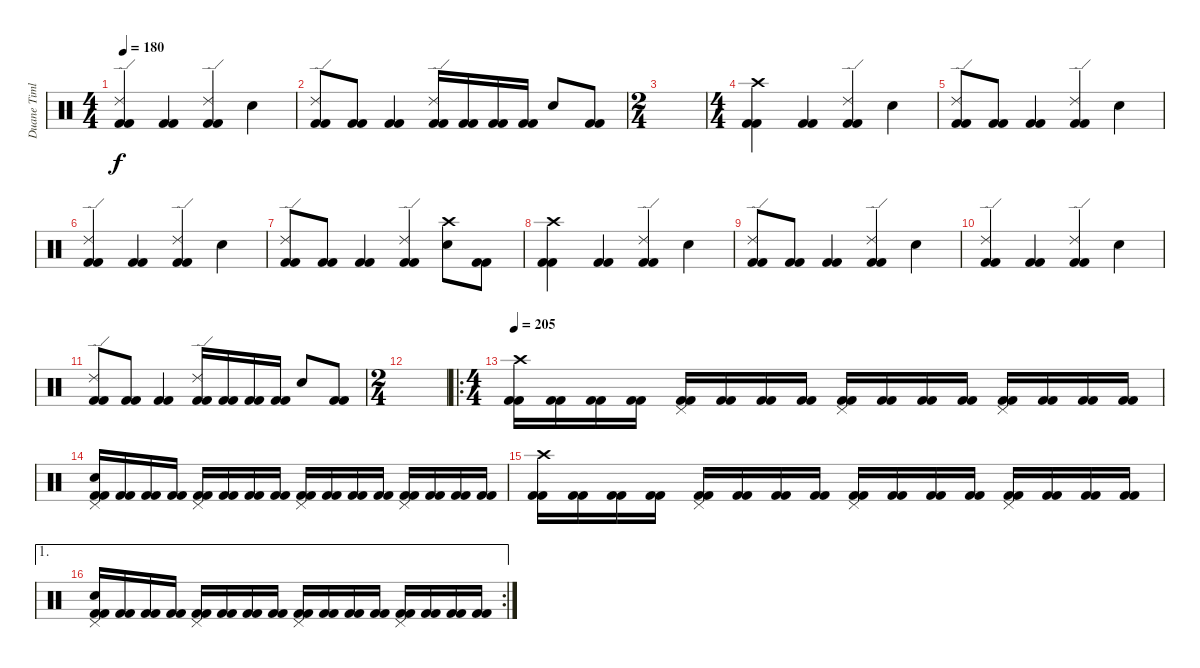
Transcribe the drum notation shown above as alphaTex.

\track ("Duane Timlin" "Duane Timl") {instrument percussion}
\staff {score}
\articulation defaults
\ts (4 4)
\tempo 180
\clef neutral
\ks c
("Ride (edge) 2" "Kick (hit) 2" "Kick (hit) 2").4{dy f} ("Kick (hit) 2" "Kick (hit) 2").4 ("Ride (edge) 2" "Kick (hit) 2" "Kick (hit) 2").4 "Electric Snare (hit)".4 |
("Ride (edge) 2" "Kick (hit) 2" "Kick (hit) 2").8 ("Kick (hit) 2" "Kick (hit) 2").8 ("Kick (hit) 2" "Kick (hit) 2").4 ("Ride (edge) 2" "Kick (hit) 2" "Kick (hit) 2").16 ("Kick (hit) 2" "Kick (hit) 2").16 ("Kick (hit) 2" "Kick (hit) 2").16 ("Kick (hit) 2" "Kick (hit) 2").16 "Electric Snare (hit)".8 ("Kick (hit) 2" "Kick (hit) 2").8 |
\ts (2 4)
|
\ts (4 4)
("Crash high (hit)" "Kick (hit) 2" "Kick (hit) 2").4 ("Kick (hit) 2" "Kick (hit) 2").4 ("Ride (edge) 2" "Kick (hit) 2" "Kick (hit) 2").4 "Electric Snare (hit)".4 |
("Ride (edge) 2" "Kick (hit) 2" "Kick (hit) 2").8 ("Kick (hit) 2" "Kick (hit) 2").8 ("Kick (hit) 2" "Kick (hit) 2").4 ("Ride (edge) 2" "Kick (hit) 2" "Kick (hit) 2").4 "Electric Snare (hit)".4 |
("Ride (edge) 2" "Kick (hit) 2" "Kick (hit) 2").4 ("Kick (hit) 2" "Kick (hit) 2").4 ("Ride (edge) 2" "Kick (hit) 2" "Kick (hit) 2").4 "Electric Snare (hit)".4 |
("Ride (edge) 2" "Kick (hit) 2" "Kick (hit) 2").8 ("Kick (hit) 2" "Kick (hit) 2").8 ("Kick (hit) 2" "Kick (hit) 2").4 ("Ride (edge) 2" "Kick (hit) 2" "Kick (hit) 2").4 ("Crash high (hit)" "Electric Snare (hit)").8 ("Kick (hit) 2" "Kick (hit) 2").8 |
("Crash high (hit)" "Kick (hit) 2" "Kick (hit) 2").4 ("Kick (hit) 2" "Kick (hit) 2").4 ("Ride (edge) 2" "Kick (hit) 2" "Kick (hit) 2").4 "Electric Snare (hit)".4 |
("Ride (edge) 2" "Kick (hit) 2" "Kick (hit) 2").8 ("Kick (hit) 2" "Kick (hit) 2").8 ("Kick (hit) 2" "Kick (hit) 2").4 ("Ride (edge) 2" "Kick (hit) 2" "Kick (hit) 2").4 "Electric Snare (hit)".4 |
("Ride (edge) 2" "Kick (hit) 2" "Kick (hit) 2").4 ("Kick (hit) 2" "Kick (hit) 2").4 ("Ride (edge) 2" "Kick (hit) 2" "Kick (hit) 2").4 "Electric Snare (hit)".4 |
("Ride (edge) 2" "Kick (hit) 2" "Kick (hit) 2").8 ("Kick (hit) 2" "Kick (hit) 2").8 ("Kick (hit) 2" "Kick (hit) 2").4 ("Ride (edge) 2" "Kick (hit) 2" "Kick (hit) 2").16 ("Kick (hit) 2" "Kick (hit) 2").16 ("Kick (hit) 2" "Kick (hit) 2").16 ("Kick (hit) 2" "Kick (hit) 2").16 "Electric Snare (hit)".8 ("Kick (hit) 2" "Kick (hit) 2").8 |
\ts (2 4)
|
\ro
\ts (4 4)
\tempo 205
("Crash high (hit)" "Kick (hit) 2" "Kick (hit) 2").16 ("Kick (hit) 2" "Kick (hit) 2").16 ("Kick (hit) 2" "Kick (hit) 2").16 ("Kick (hit) 2" "Kick (hit) 2").16 ("Pedal Hi-Hat (hit)" "Kick (hit) 2" "Kick (hit) 2").16 ("Kick (hit) 2" "Kick (hit) 2").16 ("Kick (hit) 2" "Kick (hit) 2").16 ("Kick (hit) 2" "Kick (hit) 2").16 ("Pedal Hi-Hat (hit)" "Kick (hit) 2" "Kick (hit) 2").16 ("Kick (hit) 2" "Kick (hit) 2").16 ("Kick (hit) 2" "Kick (hit) 2").16 ("Kick (hit) 2" "Kick (hit) 2").16 ("Pedal Hi-Hat (hit)" "Kick (hit) 2" "Kick (hit) 2").16 ("Kick (hit) 2" "Kick (hit) 2").16 ("Kick (hit) 2" "Kick (hit) 2").16 ("Kick (hit) 2" "Kick (hit) 2").16 |
("Pedal Hi-Hat (hit)" "Electric Snare (hit)" "Kick (hit) 2" "Kick (hit) 2").16 ("Kick (hit) 2" "Kick (hit) 2").16 ("Kick (hit) 2" "Kick (hit) 2").16 ("Kick (hit) 2" "Kick (hit) 2").16 ("Pedal Hi-Hat (hit)" "Kick (hit) 2" "Kick (hit) 2").16 ("Kick (hit) 2" "Kick (hit) 2").16 ("Kick (hit) 2" "Kick (hit) 2").16 ("Kick (hit) 2" "Kick (hit) 2").16 ("Pedal Hi-Hat (hit)" "Kick (hit) 2" "Kick (hit) 2").16 ("Kick (hit) 2" "Kick (hit) 2").16 ("Kick (hit) 2" "Kick (hit) 2").16 ("Kick (hit) 2" "Kick (hit) 2").16 ("Pedal Hi-Hat (hit)" "Kick (hit) 2" "Kick (hit) 2").16 ("Kick (hit) 2" "Kick (hit) 2").16 ("Kick (hit) 2" "Kick (hit) 2").16 ("Kick (hit) 2" "Kick (hit) 2").16 |
("Crash high (hit)" "Kick (hit) 2" "Kick (hit) 2").16 ("Kick (hit) 2" "Kick (hit) 2").16 ("Kick (hit) 2" "Kick (hit) 2").16 ("Kick (hit) 2" "Kick (hit) 2").16 ("Pedal Hi-Hat (hit)" "Kick (hit) 2" "Kick (hit) 2").16 ("Kick (hit) 2" "Kick (hit) 2").16 ("Kick (hit) 2" "Kick (hit) 2").16 ("Kick (hit) 2" "Kick (hit) 2").16 ("Pedal Hi-Hat (hit)" "Kick (hit) 2" "Kick (hit) 2").16 ("Kick (hit) 2" "Kick (hit) 2").16 ("Kick (hit) 2" "Kick (hit) 2").16 ("Kick (hit) 2" "Kick (hit) 2").16 ("Pedal Hi-Hat (hit)" "Kick (hit) 2" "Kick (hit) 2").16 ("Kick (hit) 2" "Kick (hit) 2").16 ("Kick (hit) 2" "Kick (hit) 2").16 ("Kick (hit) 2" "Kick (hit) 2").16 |
\ae 1
\rc 2
("Pedal Hi-Hat (hit)" "Electric Snare (hit)" "Kick (hit) 2" "Kick (hit) 2").16 ("Kick (hit) 2" "Kick (hit) 2").16 ("Kick (hit) 2" "Kick (hit) 2").16 ("Kick (hit) 2" "Kick (hit) 2").16 ("Pedal Hi-Hat (hit)" "Kick (hit) 2" "Kick (hit) 2").16 ("Kick (hit) 2" "Kick (hit) 2").16 ("Kick (hit) 2" "Kick (hit) 2").16 ("Kick (hit) 2" "Kick (hit) 2").16 ("Pedal Hi-Hat (hit)" "Kick (hit) 2" "Kick (hit) 2").16 ("Kick (hit) 2" "Kick (hit) 2").16 ("Kick (hit) 2" "Kick (hit) 2").16 ("Kick (hit) 2" "Kick (hit) 2").16 ("Pedal Hi-Hat (hit)" "Kick (hit) 2" "Kick (hit) 2").16 ("Kick (hit) 2" "Kick (hit) 2").16 ("Kick (hit) 2" "Kick (hit) 2").16 ("Kick (hit) 2" "Kick (hit) 2").16
